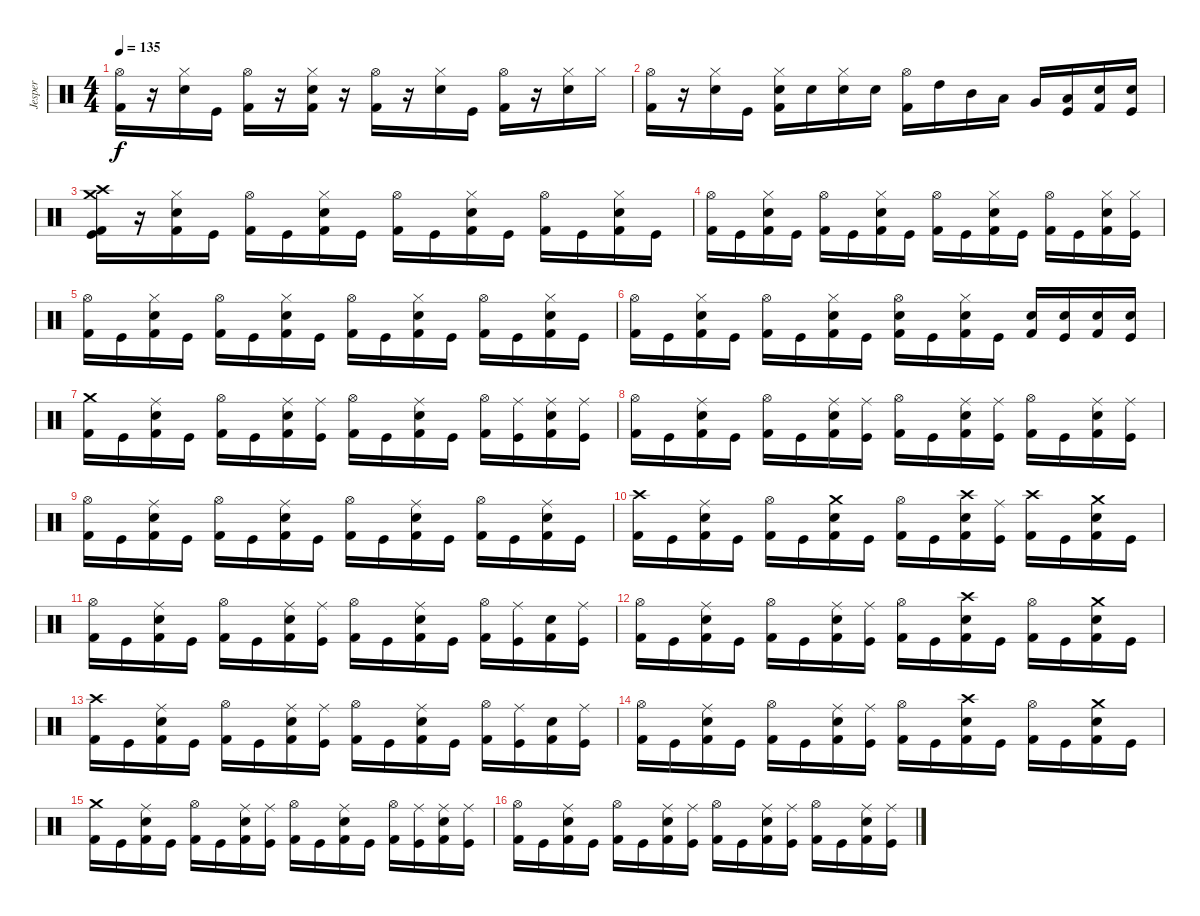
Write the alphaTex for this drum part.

\track ("Jesper" "Jesper") {instrument percussion}
\staff {score}
\articulation defaults
\ts (4 4)
\tempo 135
\clef neutral
\ks c
("Kick (hit) 2" "Hi-Hat (open)").16{dy f} r.16 ("Snare (hit) 2" "Hi-Hat (closed)").16 "Kick (hit)".16 ("Kick (hit) 2" "Hi-Hat (open)").16 r.16 ("Kick (hit) 2" "Snare (hit) 2" "Hi-Hat (closed)").16 r.16 ("Kick (hit) 2" "Hi-Hat (open)").16 r.16 ("Snare (hit) 2" "Hi-Hat (closed)").16 "Kick (hit)".16 ("Kick (hit) 2" "Hi-Hat (open)").16 r.16 ("Snare (hit) 2" "Hi-Hat (closed)").16 "Hi-Hat (closed)".16 |
("Kick (hit) 2" "Hi-Hat (open)").16 r.16 ("Snare (hit) 2" "Hi-Hat (closed)").16 "Kick (hit)".16 ("Kick (hit) 2" "Snare (hit) 2" "Hi-Hat (closed)").16 "Snare (hit) 2".16 ("Snare (hit) 2" "Hi-Hat (closed)").16 "Snare (hit) 2".16 ("Kick (hit) 2" "Hi-Hat (open)").16 "High Tom (hit)".16 "Mid Tom (hit)".16 "Low Tom (hit)".16 "Very Low Tom (hit)".16 ("Kick (hit)" "Low Floor Tom (hit)").16 ("Kick (hit) 2" "Snare (hit) 2").16 ("Kick (hit)" "Snare (hit) 2").16 |
("Kick (hit) 2" "Kick (hit)" "Crash high (hit)" "Crash medium (hit)").16 r.16 ("Kick (hit) 2" "Snare (hit) 2" "Hi-Hat (closed)").16 "Kick (hit)".16 ("Kick (hit) 2" "Hi-Hat (open)").16 "Kick (hit)".16 ("Kick (hit) 2" "Snare (hit) 2" "Hi-Hat (closed)").16 "Kick (hit)".16 ("Kick (hit) 2" "Hi-Hat (open)").16 "Kick (hit)".16 ("Kick (hit) 2" "Snare (hit) 2" "Hi-Hat (closed)").16 "Kick (hit)".16 ("Kick (hit) 2" "Hi-Hat (open)").16 "Kick (hit)".16 ("Kick (hit) 2" "Snare (hit) 2" "Hi-Hat (closed)").16 "Kick (hit)".16 |
("Kick (hit) 2" "Hi-Hat (open)").16 "Kick (hit)".16 ("Kick (hit) 2" "Snare (hit) 2" "Hi-Hat (closed)").16 "Kick (hit)".16 ("Kick (hit) 2" "Hi-Hat (open)").16 "Kick (hit)".16 ("Kick (hit) 2" "Snare (hit) 2" "Hi-Hat (closed)").16 "Kick (hit)".16 ("Kick (hit) 2" "Hi-Hat (open)").16 "Kick (hit)".16 ("Kick (hit) 2" "Snare (hit) 2" "Hi-Hat (closed)").16 "Kick (hit)".16 ("Kick (hit) 2" "Hi-Hat (open)").16 "Kick (hit)".16 ("Kick (hit) 2" "Snare (hit) 2" "Hi-Hat (closed)").16 ("Kick (hit)" "Hi-Hat (closed)").16 |
("Kick (hit) 2" "Hi-Hat (open)").16 "Kick (hit)".16 ("Kick (hit) 2" "Snare (hit) 2" "Hi-Hat (closed)").16 "Kick (hit)".16 ("Kick (hit) 2" "Hi-Hat (open)").16 "Kick (hit)".16 ("Kick (hit) 2" "Snare (hit) 2" "Hi-Hat (closed)").16 "Kick (hit)".16 ("Kick (hit) 2" "Hi-Hat (open)").16 "Kick (hit)".16 ("Kick (hit) 2" "Snare (hit) 2" "Hi-Hat (closed)").16 "Kick (hit)".16 ("Kick (hit) 2" "Hi-Hat (open)").16 "Kick (hit)".16 ("Kick (hit) 2" "Snare (hit) 2" "Hi-Hat (closed)").16 "Kick (hit)".16 |
("Kick (hit) 2" "Hi-Hat (open)").16 "Kick (hit)".16 ("Kick (hit) 2" "Snare (hit) 2" "Hi-Hat (closed)").16 "Kick (hit)".16 ("Kick (hit) 2" "Hi-Hat (open)").16 "Kick (hit)".16 ("Kick (hit) 2" "Snare (hit) 2" "Hi-Hat (closed)").16 "Kick (hit)".16 ("Kick (hit) 2" "Snare (hit) 2" "Hi-Hat (open)").16 "Kick (hit)".16 ("Kick (hit) 2" "Snare (hit) 2" "Hi-Hat (closed)").16 "Kick (hit)".16 ("Kick (hit) 2" "Snare (hit) 2").16 ("Kick (hit)" "Snare (hit) 2").16 ("Kick (hit) 2" "Snare (hit) 2").16 ("Kick (hit)" "Snare (hit) 2").16 |
("Kick (hit) 2" "Crash medium (hit)").16 "Kick (hit)".16 ("Kick (hit) 2" "Snare (hit) 2" "Ride (middle)").16 "Kick (hit)".16 ("Kick (hit) 2" "Hi-Hat (open)").16 "Kick (hit)".16 ("Kick (hit) 2" "Snare (hit) 2" "Ride (middle)").16 ("Kick (hit)" "Ride (middle)").16 ("Kick (hit) 2" "Hi-Hat (open)").16 "Kick (hit)".16 ("Kick (hit) 2" "Snare (hit) 2" "Ride (middle)").16 "Kick (hit)".16 ("Kick (hit) 2" "Hi-Hat (open)").16 ("Kick (hit)" "Ride (middle)").16 ("Kick (hit) 2" "Snare (hit) 2" "Ride (middle)").16 ("Kick (hit)" "Ride (middle)").16 |
("Kick (hit) 2" "Hi-Hat (open)").16 "Kick (hit)".16 ("Kick (hit) 2" "Snare (hit) 2" "Ride (middle)").16 "Kick (hit)".16 ("Kick (hit) 2" "Hi-Hat (open)").16 "Kick (hit)".16 ("Kick (hit) 2" "Snare (hit) 2" "Ride (middle)").16 ("Kick (hit)" "Ride (middle)").16 ("Kick (hit) 2" "Hi-Hat (open)").16 "Kick (hit)".16 ("Kick (hit) 2" "Snare (hit) 2" "Ride (middle)").16 ("Kick (hit)" "Ride (middle)").16 ("Kick (hit) 2" "Hi-Hat (open)").16 "Kick (hit)".16 ("Kick (hit) 2" "Snare (hit) 2" "Ride (middle)").16 ("Kick (hit)" "Ride (middle)").16 |
("Kick (hit) 2" "Hi-Hat (open)").16 "Kick (hit)".16 ("Kick (hit) 2" "Snare (hit) 2" "Ride (middle)").16 "Kick (hit)".16 ("Kick (hit) 2" "Hi-Hat (open)").16 "Kick (hit)".16 ("Kick (hit) 2" "Snare (hit) 2" "Ride (middle)").16 "Kick (hit)".16 ("Kick (hit) 2" "Hi-Hat (open)").16 "Kick (hit)".16 ("Kick (hit) 2" "Snare (hit) 2" "Ride (middle)").16 "Kick (hit)".16 ("Kick (hit) 2" "Hi-Hat (open)").16 "Kick (hit)".16 ("Kick (hit) 2" "Snare (hit) 2" "Ride (middle)").16 "Kick (hit)".16 |
("Kick (hit) 2" "Crash high (hit)").16 "Kick (hit)".16 ("Kick (hit) 2" "Snare (hit) 2" "Ride (middle)").16 "Kick (hit)".16 ("Kick (hit) 2" "Hi-Hat (open)").16 "Kick (hit)".16 ("Kick (hit) 2" "Snare (hit) 2" "Crash medium (hit)").16 "Kick (hit)".16 ("Kick (hit) 2" "Hi-Hat (open)").16 "Kick (hit)".16 ("Kick (hit) 2" "Snare (hit) 2" "Crash high (hit)").16 ("Kick (hit)" "Ride (middle)").16 ("Kick (hit) 2" "Crash high (hit)").16 "Kick (hit)".16 ("Kick (hit) 2" "Snare (hit) 2" "Crash medium (hit)").16 "Kick (hit)".16 |
("Kick (hit) 2" "Hi-Hat (open)").16 "Kick (hit)".16 ("Kick (hit) 2" "Snare (hit) 2" "Ride (middle)").16 "Kick (hit)".16 ("Kick (hit) 2" "Hi-Hat (open)").16 "Kick (hit)".16 ("Kick (hit) 2" "Snare (hit) 2" "Ride (middle)").16 ("Kick (hit)" "Ride (middle)").16 ("Kick (hit) 2" "Hi-Hat (open)").16 "Kick (hit)".16 ("Kick (hit) 2" "Snare (hit) 2" "Ride (middle)").16 "Kick (hit)".16 ("Kick (hit) 2" "Hi-Hat (open)").16 ("Kick (hit)" "Ride (middle)").16 ("Kick (hit) 2" "Snare (hit) 2").16 ("Kick (hit)" "Ride (middle)").16 |
("Kick (hit) 2" "Hi-Hat (open)").16 "Kick (hit)".16 ("Kick (hit) 2" "Snare (hit) 2" "Ride (middle)").16 "Kick (hit)".16 ("Kick (hit) 2" "Hi-Hat (open)").16 "Kick (hit)".16 ("Kick (hit) 2" "Snare (hit) 2" "Ride (middle)").16 ("Kick (hit)" "Ride (middle)").16 ("Kick (hit) 2" "Hi-Hat (open)").16 "Kick (hit)".16 ("Kick (hit) 2" "Snare (hit) 2" "Crash high (hit)").16 "Kick (hit)".16 ("Kick (hit) 2" "Hi-Hat (open)").16 "Kick (hit)".16 ("Kick (hit) 2" "Snare (hit) 2" "Crash medium (hit)").16 "Kick (hit)".16 |
("Kick (hit) 2" "Crash high (hit)").16 "Kick (hit)".16 ("Kick (hit) 2" "Snare (hit) 2" "Ride (middle)").16 "Kick (hit)".16 ("Kick (hit) 2" "Hi-Hat (open)").16 "Kick (hit)".16 ("Kick (hit) 2" "Snare (hit) 2" "Ride (middle)").16 ("Kick (hit)" "Ride (middle)").16 ("Kick (hit) 2" "Hi-Hat (open)").16 "Kick (hit)".16 ("Kick (hit) 2" "Snare (hit) 2" "Ride (middle)").16 "Kick (hit)".16 ("Kick (hit) 2" "Hi-Hat (open)").16 ("Kick (hit)" "Ride (middle)").16 ("Kick (hit) 2" "Snare (hit) 2").16 ("Kick (hit)" "Ride (middle)").16 |
("Kick (hit) 2" "Hi-Hat (open)").16 "Kick (hit)".16 ("Kick (hit) 2" "Snare (hit) 2" "Ride (middle)").16 "Kick (hit)".16 ("Kick (hit) 2" "Hi-Hat (open)").16 "Kick (hit)".16 ("Kick (hit) 2" "Snare (hit) 2" "Ride (middle)").16 ("Kick (hit)" "Ride (middle)").16 ("Kick (hit) 2" "Hi-Hat (open)").16 "Kick (hit)".16 ("Kick (hit) 2" "Snare (hit) 2" "Crash high (hit)").16 "Kick (hit)".16 ("Kick (hit) 2" "Hi-Hat (open)").16 "Kick (hit)".16 ("Kick (hit) 2" "Snare (hit) 2" "Crash medium (hit)").16 "Kick (hit)".16 |
("Kick (hit) 2" "Crash medium (hit)").16 "Kick (hit)".16 ("Kick (hit) 2" "Snare (hit) 2" "Ride (middle)").16 "Kick (hit)".16 ("Kick (hit) 2" "Hi-Hat (open)").16 "Kick (hit)".16 ("Kick (hit) 2" "Snare (hit) 2" "Ride (middle)").16 ("Kick (hit)" "Ride (middle)").16 ("Kick (hit) 2" "Hi-Hat (open)").16 "Kick (hit)".16 ("Kick (hit) 2" "Snare (hit) 2" "Ride (middle)").16 "Kick (hit)".16 ("Kick (hit) 2" "Hi-Hat (open)").16 ("Kick (hit)" "Ride (middle)").16 ("Kick (hit) 2" "Snare (hit) 2" "Ride (middle)").16 ("Kick (hit)" "Ride (middle)").16 |
("Kick (hit) 2" "Hi-Hat (open)").16 "Kick (hit)".16 ("Kick (hit) 2" "Snare (hit) 2" "Ride (middle)").16 "Kick (hit)".16 ("Kick (hit) 2" "Hi-Hat (open)").16 "Kick (hit)".16 ("Kick (hit) 2" "Snare (hit) 2" "Ride (middle)").16 ("Kick (hit)" "Ride (middle)").16 ("Kick (hit) 2" "Hi-Hat (open)").16 "Kick (hit)".16 ("Kick (hit) 2" "Snare (hit) 2" "Ride (middle)").16 ("Kick (hit)" "Ride (middle)").16 ("Kick (hit) 2" "Hi-Hat (open)").16 "Kick (hit)".16 ("Kick (hit) 2" "Snare (hit) 2" "Ride (middle)").16 ("Kick (hit)" "Ride (middle)").16
